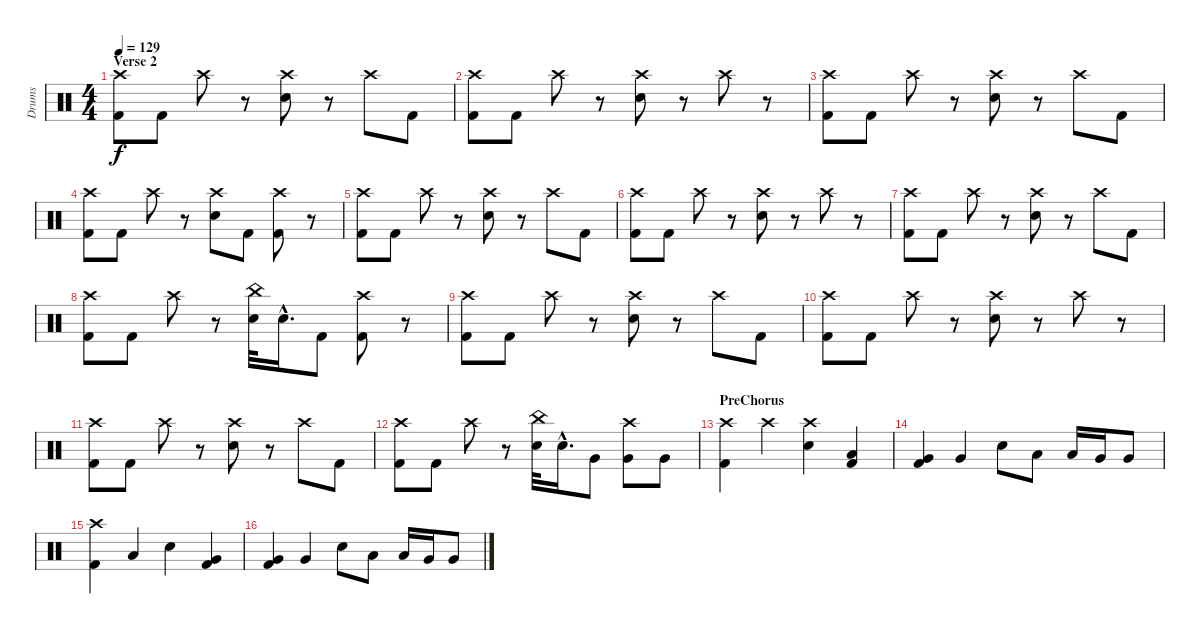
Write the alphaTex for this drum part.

\track ("Drums" "Drums") {instrument percussion}
\staff {score}
\articulation defaults
\ts (4 4)
\section ("" "Verse 2")
\tempo 129
\clef neutral
\ks c
("Crash high (hit)" "Kick (hit) 2").8{dy f} "Kick (hit) 2".8 "Crash high (hit)".8 r.8 ("Crash high (hit)" "Snare (hit) 2").8 r.8 "Crash high (hit)".8 "Kick (hit) 2".8 |
("Crash high (hit)" "Kick (hit) 2").8 "Kick (hit) 2".8 "Crash high (hit)".8 r.8 ("Crash high (hit)" "Snare (hit) 2").8 r.8 "Crash high (hit)".8 r.8 |
("Crash high (hit)" "Kick (hit) 2").8 "Kick (hit) 2".8 "Crash high (hit)".8 r.8 ("Crash high (hit)" "Snare (hit) 2").8 r.8 "Crash high (hit)".8 "Kick (hit) 2".8 |
("Crash high (hit)" "Kick (hit) 2").8 "Kick (hit) 2".8 "Crash high (hit)".8 r.8 ("Crash high (hit)" "Snare (hit) 2").8 "Kick (hit) 2".8 ("Crash high (hit)" "Kick (hit) 2").8 r.8 |
("Crash high (hit)" "Kick (hit) 2").8 "Kick (hit) 2".8 "Crash high (hit)".8 r.8 ("Crash high (hit)" "Snare (hit) 2").8 r.8 "Crash high (hit)".8 "Kick (hit) 2".8 |
("Crash high (hit)" "Kick (hit) 2").8 "Kick (hit) 2".8 "Crash high (hit)".8 r.8 ("Crash high (hit)" "Snare (hit) 2").8 r.8 "Crash high (hit)".8 r.8 |
("Crash high (hit)" "Kick (hit) 2").8 "Kick (hit) 2".8 "Crash high (hit)".8 r.8 ("Crash high (hit)" "Snare (hit) 2").8 r.8 "Crash high (hit)".8 "Kick (hit) 2".8 |
("Crash high (hit)" "Kick (hit) 2").8 "Kick (hit) 2".8 "Crash high (hit)".8 r.8 ("China (hit)" "Snare (hit) 2").32 "Snare (hit) 2"{hac}.16{d} "Kick (hit) 2".8 ("Crash high (hit)" "Kick (hit) 2").8 r.8 |
("Crash high (hit)" "Kick (hit) 2").8 "Kick (hit) 2".8 "Crash high (hit)".8 r.8 ("Crash high (hit)" "Snare (hit) 2").8 r.8 "Crash high (hit)".8 "Kick (hit) 2".8 |
("Crash high (hit)" "Kick (hit) 2").8 "Kick (hit) 2".8 "Crash high (hit)".8 r.8 ("Crash high (hit)" "Snare (hit) 2").8 r.8 "Crash high (hit)".8 r.8 |
("Crash high (hit)" "Kick (hit) 2").8 "Kick (hit) 2".8 "Crash high (hit)".8 r.8 ("Crash high (hit)" "Snare (hit) 2").8 r.8 "Crash high (hit)".8 "Kick (hit) 2".8 |
("Crash high (hit)" "Kick (hit) 2").8 "Kick (hit) 2".8 "Crash high (hit)".8 r.8 ("China (hit)" "Snare (hit) 2").32 "Snare (hit) 2"{hac}.16{d} "Very Low Tom (hit)".8 ("Crash high (hit)" "Very Low Tom (hit)").8 "Very Low Tom (hit)".8 |
\section ("" "PreChorus")
("Crash high (hit)" "Kick (hit) 2").4 "Crash high (hit)".4 ("Crash high (hit)" "Snare (hit) 2").4 ("Low Tom (hit)" "Kick (hit) 2").4 |
("Very Low Tom (hit)" "Kick (hit) 2").4 "Very Low Tom (hit)".4 "Snare (hit) 2".8 "Low Tom (hit)".8 "Low Tom (hit)".16 "Very Low Tom (hit)".16 "Very Low Tom (hit)".8 |
("Crash high (hit)" "Kick (hit) 2").4 "Low Tom (hit)".4 "Snare (hit) 2".4 ("Very Low Tom (hit)" "Kick (hit) 2").4 |
("Very Low Tom (hit)" "Kick (hit) 2").4 "Very Low Tom (hit)".4 "Snare (hit) 2".8 "Low Tom (hit)".8 "Low Tom (hit)".16 "Very Low Tom (hit)".16 "Very Low Tom (hit)".8
